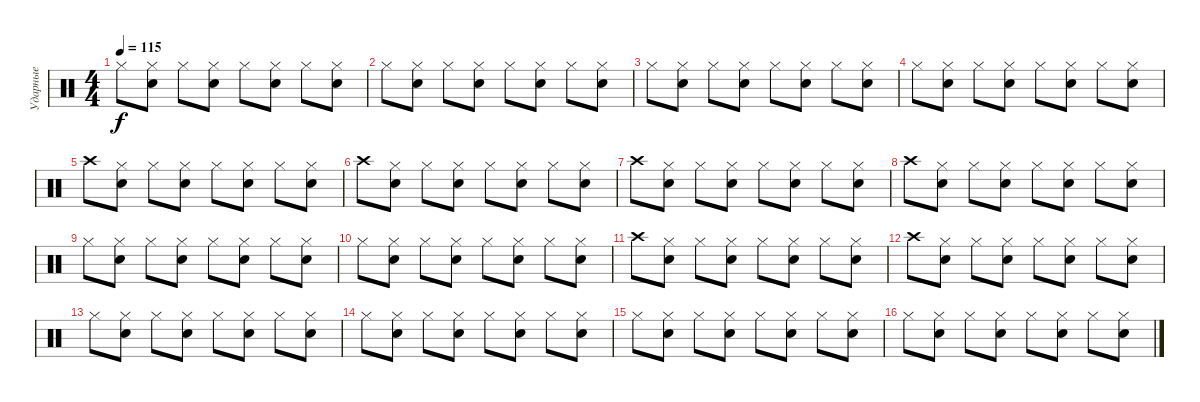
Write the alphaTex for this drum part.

\track ("Ударные" "Ударные") {instrument percussion}
\staff {score}
\articulation defaults
\ts (4 4)
\tempo 115
\clef neutral
\ks c "Hi-Hat (closed)".8{dy f}
("Hi-Hat (closed)" "Snare (hit) 2").8 "Hi-Hat (closed)".8 ("Hi-Hat (closed)" "Snare (hit) 2").8 "Hi-Hat (closed)".8 ("Hi-Hat (closed)" "Snare (hit) 2").8 "Hi-Hat (closed)".8 ("Hi-Hat (closed)" "Snare (hit) 2").8 |
"Hi-Hat (closed)".8 ("Hi-Hat (closed)" "Snare (hit) 2").8 "Hi-Hat (closed)".8 ("Hi-Hat (closed)" "Snare (hit) 2").8 "Hi-Hat (closed)".8 ("Hi-Hat (closed)" "Snare (hit) 2").8 "Hi-Hat (closed)".8 ("Hi-Hat (closed)" "Snare (hit) 2").8 |
"Hi-Hat (closed)".8 ("Hi-Hat (closed)" "Snare (hit) 2").8 "Hi-Hat (closed)".8 ("Hi-Hat (closed)" "Snare (hit) 2").8 "Hi-Hat (closed)".8 ("Hi-Hat (closed)" "Snare (hit) 2").8 "Hi-Hat (closed)".8 ("Hi-Hat (closed)" "Snare (hit) 2").8 |
"Hi-Hat (closed)".8 ("Hi-Hat (closed)" "Snare (hit) 2").8 "Hi-Hat (closed)".8 ("Hi-Hat (closed)" "Snare (hit) 2").8 "Hi-Hat (closed)".8 ("Hi-Hat (closed)" "Snare (hit) 2").8 "Hi-Hat (closed)".8 ("Hi-Hat (closed)" "Snare (hit) 2").8 |
"Crash high (hit)".8 ("Hi-Hat (closed)" "Snare (hit) 2").8 "Hi-Hat (closed)".8 ("Hi-Hat (closed)" "Snare (hit) 2").8 "Hi-Hat (closed)".8 ("Hi-Hat (closed)" "Snare (hit) 2").8 "Hi-Hat (closed)".8 ("Hi-Hat (closed)" "Snare (hit) 2").8 |
"Crash high (hit)".8 ("Hi-Hat (closed)" "Snare (hit) 2").8 "Hi-Hat (closed)".8 ("Hi-Hat (closed)" "Snare (hit) 2").8 "Hi-Hat (closed)".8 ("Hi-Hat (closed)" "Snare (hit) 2").8 "Hi-Hat (closed)".8 ("Hi-Hat (closed)" "Snare (hit) 2").8 |
"Crash high (hit)".8 ("Hi-Hat (closed)" "Snare (hit) 2").8 "Hi-Hat (closed)".8 ("Hi-Hat (closed)" "Snare (hit) 2").8 "Hi-Hat (closed)".8 ("Hi-Hat (closed)" "Snare (hit) 2").8 "Hi-Hat (closed)".8 ("Hi-Hat (closed)" "Snare (hit) 2").8 |
"Crash high (hit)".8 ("Hi-Hat (closed)" "Snare (hit) 2").8 "Hi-Hat (closed)".8 ("Hi-Hat (closed)" "Snare (hit) 2").8 "Hi-Hat (closed)".8 ("Hi-Hat (closed)" "Snare (hit) 2").8 "Hi-Hat (closed)".8 ("Hi-Hat (closed)" "Snare (hit) 2").8 |
"Hi-Hat (closed)".8 ("Hi-Hat (closed)" "Snare (hit) 2").8 "Hi-Hat (closed)".8 ("Hi-Hat (closed)" "Snare (hit) 2").8 "Hi-Hat (closed)".8 ("Hi-Hat (closed)" "Snare (hit) 2").8 "Hi-Hat (closed)".8 ("Hi-Hat (closed)" "Snare (hit) 2").8 |
"Hi-Hat (closed)".8 ("Hi-Hat (closed)" "Snare (hit) 2").8 "Hi-Hat (closed)".8 ("Hi-Hat (closed)" "Snare (hit) 2").8 "Hi-Hat (closed)".8 ("Hi-Hat (closed)" "Snare (hit) 2").8 "Hi-Hat (closed)".8 ("Hi-Hat (closed)" "Snare (hit) 2").8 |
"Crash high (hit)".8 ("Hi-Hat (closed)" "Snare (hit) 2").8 "Hi-Hat (closed)".8 ("Hi-Hat (closed)" "Snare (hit) 2").8 "Hi-Hat (closed)".8 ("Hi-Hat (closed)" "Snare (hit) 2").8 "Hi-Hat (closed)".8 ("Hi-Hat (closed)" "Snare (hit) 2").8 |
"Crash high (hit)".8 ("Hi-Hat (closed)" "Snare (hit) 2").8 "Hi-Hat (closed)".8 ("Hi-Hat (closed)" "Snare (hit) 2").8 "Hi-Hat (closed)".8 ("Hi-Hat (closed)" "Snare (hit) 2").8 "Hi-Hat (closed)".8 ("Hi-Hat (closed)" "Snare (hit) 2").8 |
"Hi-Hat (closed)".8 ("Hi-Hat (closed)" "Snare (hit) 2").8 "Hi-Hat (closed)".8 ("Hi-Hat (closed)" "Snare (hit) 2").8 "Hi-Hat (closed)".8 ("Hi-Hat (closed)" "Snare (hit) 2").8 "Hi-Hat (closed)".8 ("Hi-Hat (closed)" "Snare (hit) 2").8 |
"Hi-Hat (closed)".8 ("Hi-Hat (closed)" "Snare (hit) 2").8 "Hi-Hat (closed)".8 ("Hi-Hat (closed)" "Snare (hit) 2").8 "Hi-Hat (closed)".8 ("Hi-Hat (closed)" "Snare (hit) 2").8 "Hi-Hat (closed)".8 ("Hi-Hat (closed)" "Snare (hit) 2").8 |
"Hi-Hat (closed)".8 ("Hi-Hat (closed)" "Snare (hit) 2").8 "Hi-Hat (closed)".8 ("Hi-Hat (closed)" "Snare (hit) 2").8 "Hi-Hat (closed)".8 ("Hi-Hat (closed)" "Snare (hit) 2").8 "Hi-Hat (closed)".8 ("Hi-Hat (closed)" "Snare (hit) 2").8 |
"Hi-Hat (closed)".8 ("Hi-Hat (closed)" "Snare (hit) 2").8 "Hi-Hat (closed)".8 ("Hi-Hat (closed)" "Snare (hit) 2").8 "Hi-Hat (closed)".8 ("Hi-Hat (closed)" "Snare (hit) 2").8 "Hi-Hat (closed)".8 ("Hi-Hat (closed)" "Snare (hit) 2").8
